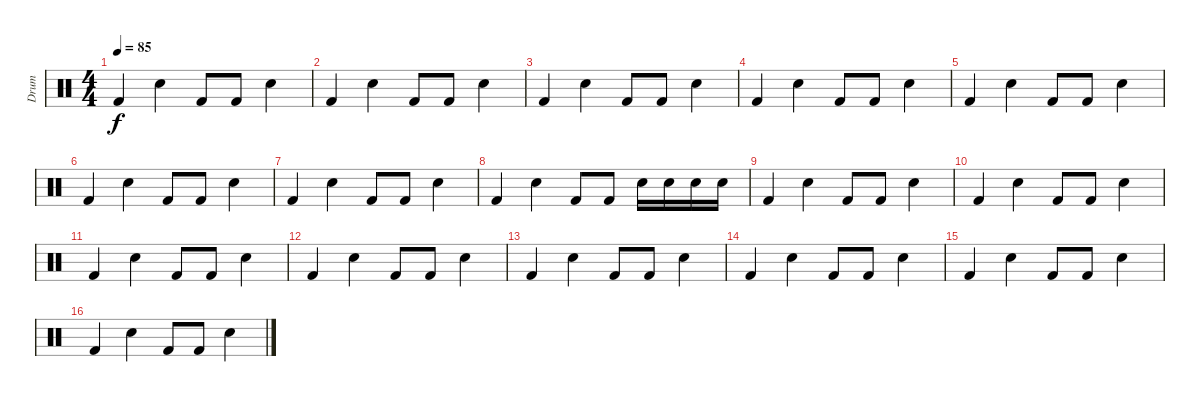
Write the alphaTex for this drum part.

\track ("Drum" "Drum") {instrument percussion}
\staff {score}
\articulation defaults
\ts (4 4)
\tempo 85
\clef neutral
\ks c "Kick (hit) 2".4{dy f} "Snare (hit) 2".4 "Kick (hit) 2".8 "Kick (hit) 2".8 "Snare (hit) 2".4
|
"Kick (hit) 2".4 "Snare (hit) 2".4 "Kick (hit) 2".8 "Kick (hit) 2".8 "Snare (hit) 2".4 |
"Kick (hit) 2".4 "Snare (hit) 2".4 "Kick (hit) 2".8 "Kick (hit) 2".8 "Snare (hit) 2".4 |
"Kick (hit) 2".4 "Snare (hit) 2".4 "Kick (hit) 2".8 "Kick (hit) 2".8 "Snare (hit) 2".4 |
"Kick (hit) 2".4 "Snare (hit) 2".4 "Kick (hit) 2".8 "Kick (hit) 2".8 "Snare (hit) 2".4 |
"Kick (hit) 2".4 "Snare (hit) 2".4 "Kick (hit) 2".8 "Kick (hit) 2".8 "Snare (hit) 2".4 |
"Kick (hit) 2".4 "Snare (hit) 2".4 "Kick (hit) 2".8 "Kick (hit) 2".8 "Snare (hit) 2".4 |
"Kick (hit) 2".4 "Snare (hit) 2".4 "Kick (hit) 2".8 "Kick (hit) 2".8 "Snare (hit) 2".16 "Snare (hit) 2".16 "Snare (hit) 2".16 "Snare (hit) 2".16 |
"Kick (hit) 2".4 "Snare (hit) 2".4 "Kick (hit) 2".8 "Kick (hit) 2".8 "Snare (hit) 2".4 |
"Kick (hit) 2".4 "Snare (hit) 2".4 "Kick (hit) 2".8 "Kick (hit) 2".8 "Snare (hit) 2".4 |
"Kick (hit) 2".4 "Snare (hit) 2".4 "Kick (hit) 2".8 "Kick (hit) 2".8 "Snare (hit) 2".4 |
"Kick (hit) 2".4 "Snare (hit) 2".4 "Kick (hit) 2".8 "Kick (hit) 2".8 "Snare (hit) 2".4 |
"Kick (hit) 2".4 "Snare (hit) 2".4 "Kick (hit) 2".8 "Kick (hit) 2".8 "Snare (hit) 2".4 |
"Kick (hit) 2".4 "Snare (hit) 2".4 "Kick (hit) 2".8 "Kick (hit) 2".8 "Snare (hit) 2".4 |
"Kick (hit) 2".4 "Snare (hit) 2".4 "Kick (hit) 2".8 "Kick (hit) 2".8 "Snare (hit) 2".4 |
"Kick (hit) 2".4 "Snare (hit) 2".4 "Kick (hit) 2".8 "Kick (hit) 2".8 "Snare (hit) 2".4
